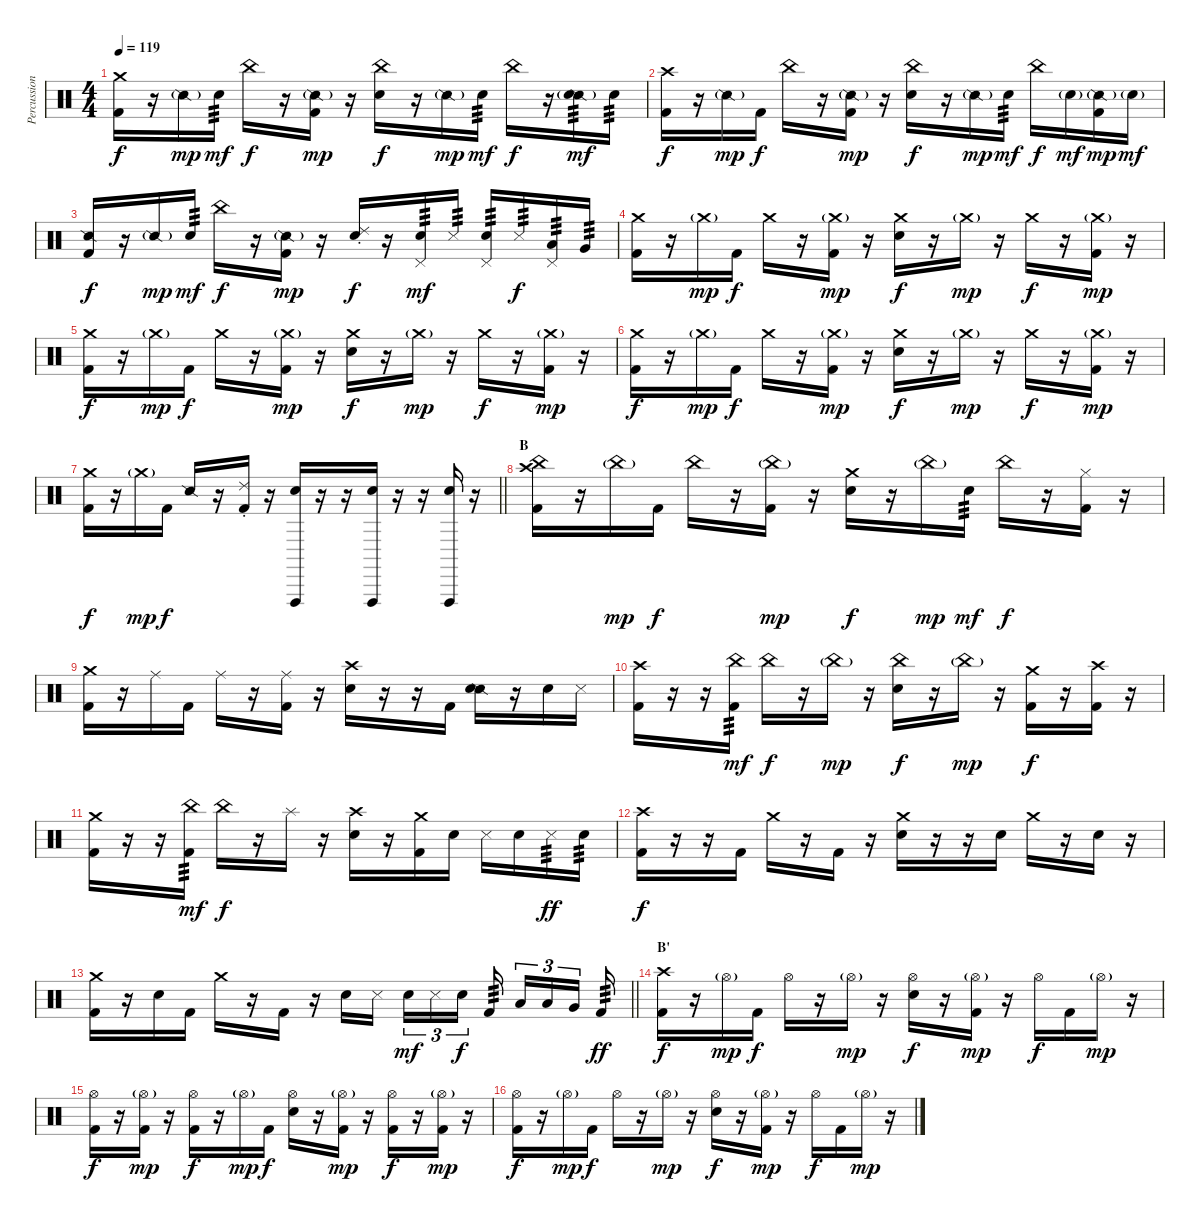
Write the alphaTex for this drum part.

\track ("Percussion" "Percussion") {instrument percussion}
\staff {score}
\articulation defaults
\ts (4 4)
\tempo 119
\clef neutral
\ks c
("Crash medium (hit)" "Kick (hit) 2").16{dy f} r.16 "Snare (side stick) 2"{g}.16{dy mp} "Snare (hit) 2".16{tp 3 dy mf} "China (hit)".16{dy f} r.16 ("Snare (side stick) 2"{g} "Kick (hit) 2").16{dy mp} r.16 ("China (hit)" "Snare (hit) 2").16{dy f} r.16 "Snare (side stick) 2"{g}.16{dy mp} "Snare (hit) 2".16{tp 3 dy mf} "China (hit)".16{dy f} r.16 ("Snare (side stick) 2"{g} "Snare (hit) 2").16{tp 3 dy mf} "Snare (hit) 2".16{tp 3} |
("Crash high (hit)" "Kick (hit) 2").16{dy f} r.16 "Snare (side stick) 2"{g}.16{dy mp} "Kick (hit) 2".16{dy f} "China (hit)".16 r.16 ("Snare (side stick) 2"{g} "Kick (hit) 2").16{dy mp} r.16 ("China (hit)" "Snare (hit) 2").16{dy f} r.16 "Snare (side stick) 2"{g}.16{dy mp} "Snare (hit) 2".16{tp 3 dy mf} "China (hit)".16{dy f} "Snare (hit) 2"{g}.16{dy mf} ("Snare (side stick) 2"{g} "Kick (hit) 2").16{dy mp} "Snare (hit) 2"{g}.16{dy mf} |
("Snare (side stick) 2" "Kick (hit) 2").16{dy f} r.16 "Snare (side stick) 2"{g}.16{dy mp} "Snare (hit) 2".16{tp 3 dy mf} "China (hit)".16{dy f} r.16 ("Snare (side stick) 2"{g} "Kick (hit) 2").16{dy mp} r.16 ("Ride (choke) 2" "Snare (hit) 2").16{dy f} r.16 ("Pedal Hi-Hat (hit)" "Snare (hit) 2").16{tp 3 dy mf} "Metronome (hit)".16{tp 3} ("Pedal Hi-Hat (hit)" "Snare (hit) 2").16{tp 3} "Metronome (hit)".16{tp 3 dy f} ("Pedal Hi-Hat (hit)" "Low Tom (hit)").16{tp 3} "Very Low Tom (hit)".16{tp 3} |
("Crash medium (hit)" "Kick (hit) 2").16 r.16 "Crash medium (hit)"{g}.16{dy mp} "Kick (hit) 2".16{dy f} "Crash medium (hit)".16 r.16 ("Crash medium (hit)"{g} "Kick (hit) 2").16{dy mp} r.16 ("Crash medium (hit)" "Snare (hit) 2").16{dy f} r.16 "Crash medium (hit)"{g}.16{dy mp} r.16 "Crash medium (hit)".16{dy f} r.16 ("Crash medium (hit)"{g} "Kick (hit) 2").16{dy mp} r.16 |
("Crash medium (hit)" "Kick (hit) 2").16{dy f} r.16 "Crash medium (hit)"{g}.16{dy mp} "Kick (hit) 2".16{dy f} "Crash medium (hit)".16 r.16 ("Crash medium (hit)"{g} "Kick (hit) 2").16{dy mp} r.16 ("Crash medium (hit)" "Snare (hit) 2").16{dy f} r.16 "Crash medium (hit)"{g}.16{dy mp} r.16 "Crash medium (hit)".16{dy f} r.16 ("Crash medium (hit)"{g} "Kick (hit) 2").16{dy mp} r.16 |
("Crash medium (hit)" "Kick (hit) 2").16{dy f} r.16 "Crash medium (hit)"{g}.16{dy mp} "Kick (hit) 2".16{dy f} "Crash medium (hit)".16 r.16 ("Crash medium (hit)"{g} "Kick (hit) 2").16{dy mp} r.16 ("Crash medium (hit)" "Snare (hit) 2").16{dy f} r.16 "Crash medium (hit)"{g}.16{dy mp} r.16 "Crash medium (hit)".16{dy f} r.16 ("Crash medium (hit)"{g} "Kick (hit) 2").16{dy mp} r.16 |
\barLineRight lightlight
("Crash medium (hit)" "Kick (hit) 2").16{dy f} r.16 "Crash medium (hit)"{g}.16{dy mp} "Kick (hit) 2".16{dy f} "Snare (side stick) 2".16 r.16 ("Ride (choke) 2" "Kick (hit) 2").16 r.16 ("Vibraslap (hit)" "Snare (hit) 2").16 r.16 r.16 ("Vibraslap (hit)" "Snare (hit) 2").16 r.16 r.16 ("Vibraslap (hit)" "Snare (hit) 2").16 r.16 |
\section ("" "B")
("Crash high (hit)" "China (hit)" "Kick (hit) 2").16 r.16 "China (hit)"{g}.16{dy mp} "Kick (hit) 2".16{dy f} "China (hit)".16 r.16 ("China (hit)"{g} "Kick (hit) 2").16{dy mp} r.16 ("Crash medium (hit)" "Snare (hit) 2").16{dy f} r.16 "China (hit)"{g}.16{dy mp} "Snare (hit) 2".16{tp 3 dy mf} "China (hit)".16{dy f} r.16 ("Hi-Hat (closed)" "Kick (hit) 2").16 r.16 |
("Crash medium (hit)" "Kick (hit) 2").16 r.16 "Ride (middle)".16 "Kick (hit) 2".16 "Ride (middle)".16 r.16 ("Ride (middle)" "Kick (hit) 2").16 r.16 ("Crash high (hit)" "Snare (hit) 2").16 r.16 r.16 "Kick (hit) 2".16 ("Snare (side stick) 2" "Snare (hit) 2").16 r.16 "Snare (hit) 2".16 "Metronome (hit)".16 |
("Crash high (hit)" "Kick (hit) 2").16 r.16 r.16 ("China (hit)" "Kick (hit) 2").16{tp 3 dy mf} "China (hit)".16{dy f} r.16 "China (hit)"{g}.16{dy mp} r.16 ("China (hit)" "Snare (hit) 2").16{dy f} r.16 "China (hit)"{g}.16{dy mp} r.16 ("Crash medium (hit)" "Kick (hit) 2").16{dy f} r.16 ("Crash high (hit)" "Kick (hit) 2").16 r.16 |
("Crash medium (hit)" "Kick (hit) 2").16 r.16 r.16 ("China (hit)" "Kick (hit) 2").16{tp 3 dy mf} "China (hit)".16{dy f} r.16 "Splash (hit)".16 r.16 ("Crash high (hit)" "Snare (hit) 2").16 r.16 ("Crash medium (hit)" "Kick (hit) 2").16 "Snare (hit) 2".16 "Metronome (hit)".16 "Snare (hit) 2".16 "Metronome (hit)".16{tp 3 dy ff} "Snare (hit) 2".16{tp 3} |
("Crash high (hit)" "Kick (hit) 2").16{dy f} r.16 r.16 "Kick (hit) 2".16 "Crash medium (hit)".16 r.16 "Kick (hit) 2".16 r.16 ("Crash medium (hit)" "Snare (hit) 2").16 r.16 r.16 "Snare (hit) 2".16 "Crash medium (hit)".16 r.16 "Snare (hit) 2".16 r.16 |
\barLineRight lightlight
("Crash medium (hit)" "Kick (hit) 2").16 r.16 "Snare (hit) 2".16 "Kick (hit) 2".16 "Crash medium (hit)".16 r.16 "Kick (hit) 2".16 r.16 "Snare (hit) 2".16 "Metronome (hit)".16{beam splitsecondary} "Snare (hit) 2".16{tu (3 2) dy mf} "Metronome (hit)".16{tu (3 2)} "Snare (hit) 2".16{tu (3 2) dy f} "Kick (hit) 2".16{tp 3 beam splitsecondary} "Low Tom (hit)".16{tu (3 2)} "Low Tom (hit)".16{tu (3 2)} "Very Low Tom (hit)".16{tu (3 2) beam splitsecondary} "Kick (hit) 2".16{tp 3 dy ff} |
\section ("" "B'")
("Crash high (hit)" "Kick (hit) 2").16{dy f} r.16 "Hi-Hat (open)"{g}.16{dy mp} "Kick (hit) 2".16{dy f} "Hi-Hat (open)".16 r.16 "Hi-Hat (open)"{g}.16{dy mp} r.16 ("Hi-Hat (open)" "Snare (hit) 2").16{dy f} r.16 ("Hi-Hat (open)"{g} "Kick (hit) 2").16{dy mp} r.16 "Hi-Hat (open)".16{dy f} "Kick (hit) 2".16 "Hi-Hat (open)"{g}.16{dy mp} r.16 |
("Hi-Hat (open)" "Kick (hit) 2").16{dy f} r.16 ("Hi-Hat (open)"{g} "Kick (hit) 2").16{dy mp} r.16 ("Hi-Hat (open)" "Kick (hit) 2").16{dy f} r.16 "Hi-Hat (open)"{g}.16{dy mp} "Kick (hit) 2".16{dy f} ("Hi-Hat (open)" "Snare (hit) 2").16 r.16 ("Hi-Hat (open)"{g} "Kick (hit) 2").16{dy mp} r.16 ("Hi-Hat (open)" "Kick (hit) 2").16{dy f} r.16 ("Hi-Hat (open)"{g} "Kick (hit) 2").16{dy mp} r.16 |
("Hi-Hat (open)" "Kick (hit) 2").16{dy f} r.16 "Hi-Hat (open)"{g}.16{dy mp} "Kick (hit) 2".16{dy f} "Hi-Hat (open)".16 r.16 "Hi-Hat (open)"{g}.16{dy mp} r.16 ("Hi-Hat (open)" "Snare (hit) 2").16{dy f} r.16 ("Hi-Hat (open)"{g} "Kick (hit) 2").16{dy mp} r.16 "Hi-Hat (open)".16{dy f} "Kick (hit) 2".16 "Hi-Hat (open)"{g}.16{dy mp} r.16
